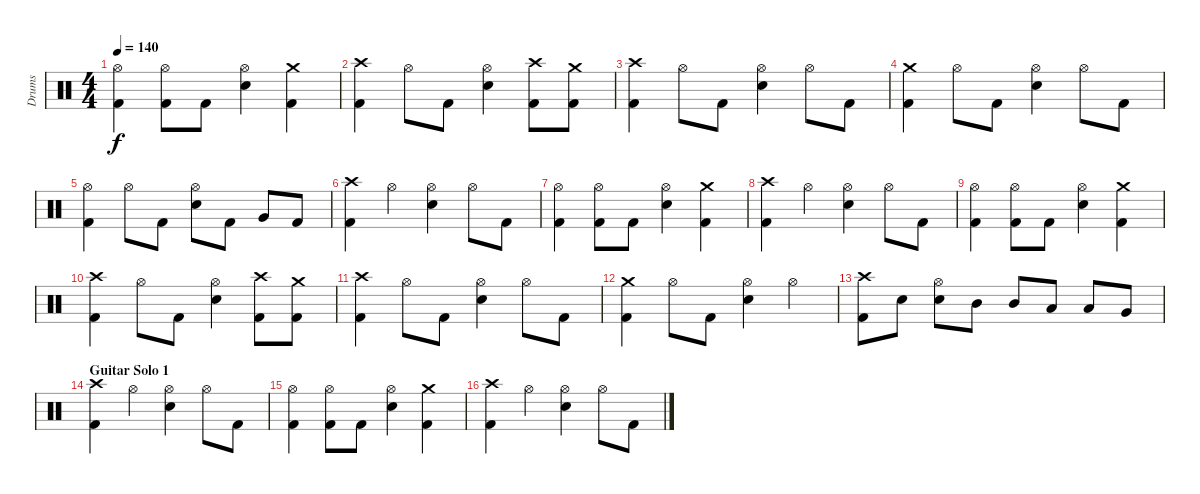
\track ("Drums" "Drums") {instrument percussion}
\staff {score}
\articulation defaults
\ts (4 4)
\tempo 140
\clef neutral
\ks c
("Hi-Hat (open)" "Kick (hit) 2").4{dy f} ("Hi-Hat (open)" "Kick (hit) 2").8 "Kick (hit) 2".8 ("Hi-Hat (open)" "Electric Snare (hit)").4 ("Crash medium (hit)" "Kick (hit) 2").4 |
("Crash high (hit)" "Kick (hit) 2").4 "Hi-Hat (open)".8 "Kick (hit) 2".8 ("Hi-Hat (open)" "Electric Snare (hit)").4 ("Crash high (hit)" "Kick (hit) 2").8 ("Crash medium (hit)" "Kick (hit) 2").8 |
("Crash high (hit)" "Kick (hit) 2").4 "Hi-Hat (open)".8 "Kick (hit) 2".8 ("Hi-Hat (open)" "Electric Snare (hit)").4 "Hi-Hat (open)".8 "Kick (hit) 2".8 |
("Crash medium (hit)" "Kick (hit) 2").4 "Hi-Hat (open)".8 "Kick (hit) 2".8 ("Hi-Hat (open)" "Electric Snare (hit)").4 "Hi-Hat (open)".8 "Kick (hit) 2".8 |
("Hi-Hat (open)" "Kick (hit) 2").4 "Hi-Hat (open)".8 "Kick (hit) 2".8 ("Hi-Hat (open)" "Electric Snare (hit)").8 "Kick (hit) 2".8 "Very Low Tom (hit)".8 "Kick (hit) 2".8 |
("Crash high (hit)" "Kick (hit) 2").4 "Hi-Hat (open)".4 ("Hi-Hat (open)" "Electric Snare (hit)").4 "Hi-Hat (open)".8 "Kick (hit) 2".8 |
("Hi-Hat (open)" "Kick (hit) 2").4 ("Hi-Hat (open)" "Kick (hit) 2").8 "Kick (hit) 2".8 ("Hi-Hat (open)" "Electric Snare (hit)").4 ("Crash medium (hit)" "Kick (hit) 2").4 |
("Crash high (hit)" "Kick (hit) 2").4 "Hi-Hat (open)".4 ("Hi-Hat (open)" "Electric Snare (hit)").4 "Hi-Hat (open)".8 "Kick (hit) 2".8 |
("Hi-Hat (open)" "Kick (hit) 2").4 ("Hi-Hat (open)" "Kick (hit) 2").8 "Kick (hit) 2".8 ("Hi-Hat (open)" "Electric Snare (hit)").4 ("Crash medium (hit)" "Kick (hit) 2").4 |
("Crash high (hit)" "Kick (hit) 2").4 "Hi-Hat (open)".8 "Kick (hit) 2".8 ("Hi-Hat (open)" "Electric Snare (hit)").4 ("Crash high (hit)" "Kick (hit) 2").8 ("Crash medium (hit)" "Kick (hit) 2").8 |
("Crash high (hit)" "Kick (hit) 2").4 "Hi-Hat (open)".8 "Kick (hit) 2".8 ("Hi-Hat (open)" "Electric Snare (hit)").4 "Hi-Hat (open)".8 "Kick (hit) 2".8 |
("Crash medium (hit)" "Kick (hit) 2").4 "Hi-Hat (open)".8 "Kick (hit) 2".8 ("Hi-Hat (open)" "Electric Snare (hit)").4 "Hi-Hat (open)".4 |
("Crash high (hit)" "Kick (hit) 2").8 "Electric Snare (hit)".8 ("Hi-Hat (open)" "Electric Snare (hit)").8 "Mid Tom (hit)".8 "Mid Tom (hit)".8 "Low Tom (hit)".8 "Low Tom (hit)".8 "Very Low Tom (hit)".8 |
\section ("" "Guitar Solo 1")
("Crash high (hit)" "Kick (hit) 2").4 "Hi-Hat (open)".4 ("Hi-Hat (open)" "Electric Snare (hit)").4 "Hi-Hat (open)".8 "Kick (hit) 2".8 |
("Hi-Hat (open)" "Kick (hit) 2").4 ("Hi-Hat (open)" "Kick (hit) 2").8 "Kick (hit) 2".8 ("Hi-Hat (open)" "Electric Snare (hit)").4 ("Crash medium (hit)" "Kick (hit) 2").4 |
("Crash high (hit)" "Kick (hit) 2").4 "Hi-Hat (open)".4 ("Hi-Hat (open)" "Electric Snare (hit)").4 "Hi-Hat (open)".8 "Kick (hit) 2".8
